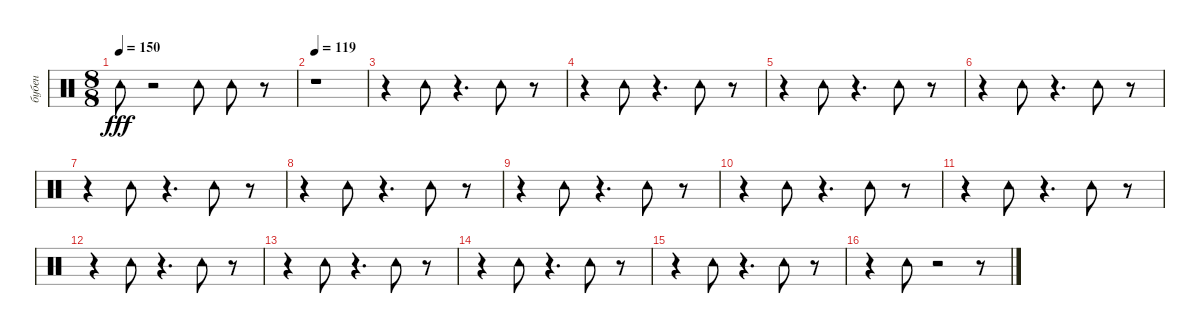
\track ("бубен" "бубен") {instrument percussion}
\staff {score}
\articulation defaults
\ts (8 8)
\tempo 150
\clef neutral
\ks c "Tambourine (hit)".8{dy fff}
r.2 "Tambourine (hit)".8 "Tambourine (hit)".8 r.8 |
\tempo 119
r.1 |
r.4 "Tambourine (hit)".8 r.4{d} "Tambourine (hit)".8 r.8 |
r.4 "Tambourine (hit)".8 r.4{d} "Tambourine (hit)".8 r.8 |
r.4 "Tambourine (hit)".8 r.4{d} "Tambourine (hit)".8 r.8 |
r.4 "Tambourine (hit)".8 r.4{d} "Tambourine (hit)".8 r.8 |
r.4 "Tambourine (hit)".8 r.4{d} "Tambourine (hit)".8 r.8 |
r.4 "Tambourine (hit)".8 r.4{d} "Tambourine (hit)".8 r.8 |
r.4 "Tambourine (hit)".8 r.4{d} "Tambourine (hit)".8 r.8 |
r.4 "Tambourine (hit)".8 r.4{d} "Tambourine (hit)".8 r.8 |
r.4 "Tambourine (hit)".8 r.4{d} "Tambourine (hit)".8 r.8 |
r.4 "Tambourine (hit)".8 r.4{d} "Tambourine (hit)".8 r.8 |
r.4 "Tambourine (hit)".8 r.4{d} "Tambourine (hit)".8 r.8 |
r.4 "Tambourine (hit)".8 r.4{d} "Tambourine (hit)".8 r.8 |
r.4 "Tambourine (hit)".8 r.4{d} "Tambourine (hit)".8 r.8 |
r.4 "Tambourine (hit)".8 r.2 r.8
